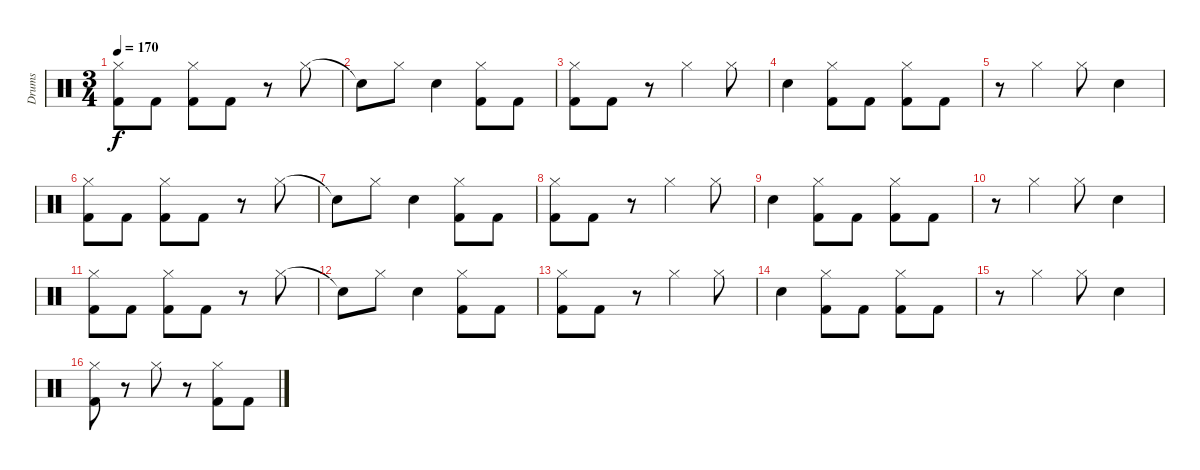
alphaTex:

\track ("Drums" "Drums") {instrument percussion}
\staff {score}
\articulation defaults
\ts (3 4)
\tempo 170
\clef neutral
\ks c
("Hi-Hat (closed)" "Kick (hit) 2").8{dy f} "Kick (hit) 2".8 ("Hi-Hat (closed)" "Kick (hit) 2").8 "Kick (hit) 2".8 r.8 "Hi-Hat (closed)".8 |
"Snare (hit)"{t}.8 "Hi-Hat (closed)".8 "Electric Snare (hit)".4 ("Hi-Hat (closed)" "Kick (hit) 2").8 "Kick (hit) 2".8 |
("Hi-Hat (closed)" "Kick (hit) 2").8 "Kick (hit) 2".8 r.8 "Hi-Hat (closed)".4 "Hi-Hat (closed)".8 |
"Electric Snare (hit)".4 ("Hi-Hat (closed)" "Kick (hit) 2").8 "Kick (hit) 2".8 ("Hi-Hat (closed)" "Kick (hit) 2").8 "Kick (hit) 2".8 |
r.8 "Hi-Hat (closed)".4 "Hi-Hat (closed)".8 "Electric Snare (hit)".4 |
("Hi-Hat (closed)" "Kick (hit) 2").8 "Kick (hit) 2".8 ("Hi-Hat (closed)" "Kick (hit) 2").8 "Kick (hit) 2".8 r.8 "Hi-Hat (closed)".8 |
"Snare (hit)"{t}.8 "Hi-Hat (closed)".8 "Electric Snare (hit)".4 ("Hi-Hat (closed)" "Kick (hit) 2").8 "Kick (hit) 2".8 |
("Hi-Hat (closed)" "Kick (hit) 2").8 "Kick (hit) 2".8 r.8 "Hi-Hat (closed)".4 "Hi-Hat (closed)".8 |
"Electric Snare (hit)".4 ("Hi-Hat (closed)" "Kick (hit) 2").8 "Kick (hit) 2".8 ("Hi-Hat (closed)" "Kick (hit) 2").8 "Kick (hit) 2".8 |
r.8 "Hi-Hat (closed)".4 "Hi-Hat (closed)".8 "Electric Snare (hit)".4 |
("Hi-Hat (closed)" "Kick (hit) 2").8 "Kick (hit) 2".8 ("Hi-Hat (closed)" "Kick (hit) 2").8 "Kick (hit) 2".8 r.8 "Hi-Hat (closed)".8 |
"Snare (hit)"{t}.8 "Hi-Hat (closed)".8 "Electric Snare (hit)".4 ("Hi-Hat (closed)" "Kick (hit) 2").8 "Kick (hit) 2".8 |
("Hi-Hat (closed)" "Kick (hit) 2").8 "Kick (hit) 2".8 r.8 "Hi-Hat (closed)".4 "Hi-Hat (closed)".8 |
"Electric Snare (hit)".4 ("Hi-Hat (closed)" "Kick (hit) 2").8 "Kick (hit) 2".8 ("Hi-Hat (closed)" "Kick (hit) 2").8 "Kick (hit) 2".8 |
r.8 "Hi-Hat (closed)".4 "Hi-Hat (closed)".8 "Electric Snare (hit)".4 |
("Hi-Hat (closed)" "Kick (hit) 2").8 r.8 "Hi-Hat (closed)".8 r.8 ("Hi-Hat (closed)" "Kick (hit) 2").8 "Kick (hit) 2".8
